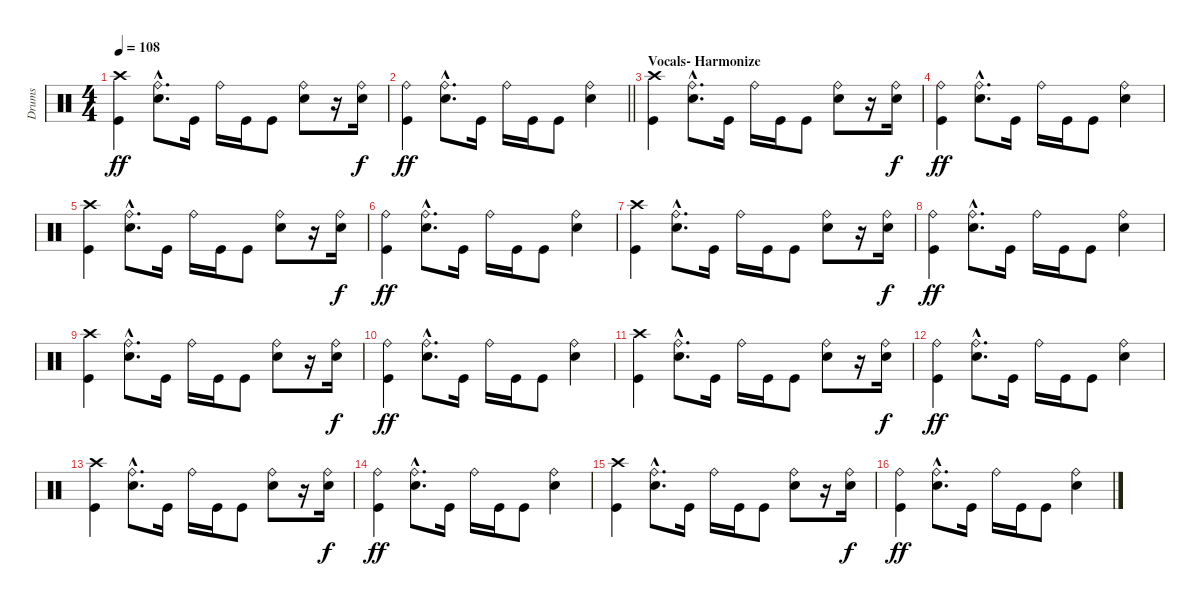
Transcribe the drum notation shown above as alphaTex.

\track ("Drums" "Drums") {instrument percussion}
\staff {score}
\articulation defaults
\ts (4 4)
\tempo 108
\clef neutral
\ks c
("Crash high (hit)" "Kick (hit)").4{dy ff} ("Ride (bell)"{hac} "Electric Snare (hit)"{hac}).8{d} "Kick (hit)".16 "Ride (bell)".16 "Kick (hit)".16 "Kick (hit)".8 ("Ride (bell)" "Electric Snare (hit)").8 r.16 ("Ride (bell)" "Electric Snare (hit)").16{dy f} |
\barLineRight lightlight
("Ride (bell)" "Kick (hit)").4{dy ff} ("Ride (bell)"{hac} "Electric Snare (hit)"{hac}).8{d} "Kick (hit)".16 "Ride (bell)".16 "Kick (hit)".16 "Kick (hit)".8 ("Ride (bell)" "Electric Snare (hit)").4 |
\section ("" "Vocals- Harmonize")
("Crash high (hit)" "Kick (hit)").4 ("Ride (bell)"{hac} "Electric Snare (hit)"{hac}).8{d} "Kick (hit)".16 "Ride (bell)".16 "Kick (hit)".16 "Kick (hit)".8 ("Ride (bell)" "Electric Snare (hit)").8 r.16 ("Ride (bell)" "Electric Snare (hit)").16{dy f} |
("Ride (bell)" "Kick (hit)").4{dy ff} ("Ride (bell)"{hac} "Electric Snare (hit)"{hac}).8{d} "Kick (hit)".16 "Ride (bell)".16 "Kick (hit)".16 "Kick (hit)".8 ("Ride (bell)" "Electric Snare (hit)").4 |
("Crash high (hit)" "Kick (hit)").4 ("Ride (bell)"{hac} "Electric Snare (hit)"{hac}).8{d} "Kick (hit)".16 "Ride (bell)".16 "Kick (hit)".16 "Kick (hit)".8 ("Ride (bell)" "Electric Snare (hit)").8 r.16 ("Ride (bell)" "Electric Snare (hit)").16{dy f} |
("Ride (bell)" "Kick (hit)").4{dy ff} ("Ride (bell)"{hac} "Electric Snare (hit)"{hac}).8{d} "Kick (hit)".16 "Ride (bell)".16 "Kick (hit)".16 "Kick (hit)".8 ("Ride (bell)" "Electric Snare (hit)").4 |
("Crash high (hit)" "Kick (hit)").4 ("Ride (bell)"{hac} "Electric Snare (hit)"{hac}).8{d} "Kick (hit)".16 "Ride (bell)".16 "Kick (hit)".16 "Kick (hit)".8 ("Ride (bell)" "Electric Snare (hit)").8 r.16 ("Ride (bell)" "Electric Snare (hit)").16{dy f} |
("Ride (bell)" "Kick (hit)").4{dy ff} ("Ride (bell)"{hac} "Electric Snare (hit)"{hac}).8{d} "Kick (hit)".16 "Ride (bell)".16 "Kick (hit)".16 "Kick (hit)".8 ("Ride (bell)" "Electric Snare (hit)").4 |
("Crash high (hit)" "Kick (hit)").4 ("Ride (bell)"{hac} "Electric Snare (hit)"{hac}).8{d} "Kick (hit)".16 "Ride (bell)".16 "Kick (hit)".16 "Kick (hit)".8 ("Ride (bell)" "Electric Snare (hit)").8 r.16 ("Ride (bell)" "Electric Snare (hit)").16{dy f} |
("Ride (bell)" "Kick (hit)").4{dy ff} ("Ride (bell)"{hac} "Electric Snare (hit)"{hac}).8{d} "Kick (hit)".16 "Ride (bell)".16 "Kick (hit)".16 "Kick (hit)".8 ("Ride (bell)" "Electric Snare (hit)").4 |
("Crash high (hit)" "Kick (hit)").4 ("Ride (bell)"{hac} "Electric Snare (hit)"{hac}).8{d} "Kick (hit)".16 "Ride (bell)".16 "Kick (hit)".16 "Kick (hit)".8 ("Ride (bell)" "Electric Snare (hit)").8 r.16 ("Ride (bell)" "Electric Snare (hit)").16{dy f} |
("Ride (bell)" "Kick (hit)").4{dy ff} ("Ride (bell)"{hac} "Electric Snare (hit)"{hac}).8{d} "Kick (hit)".16 "Ride (bell)".16 "Kick (hit)".16 "Kick (hit)".8 ("Ride (bell)" "Electric Snare (hit)").4 |
("Crash high (hit)" "Kick (hit)").4 ("Ride (bell)"{hac} "Electric Snare (hit)"{hac}).8{d} "Kick (hit)".16 "Ride (bell)".16 "Kick (hit)".16 "Kick (hit)".8 ("Ride (bell)" "Electric Snare (hit)").8 r.16 ("Ride (bell)" "Electric Snare (hit)").16{dy f} |
("Ride (bell)" "Kick (hit)").4{dy ff} ("Ride (bell)"{hac} "Electric Snare (hit)"{hac}).8{d} "Kick (hit)".16 "Ride (bell)".16 "Kick (hit)".16 "Kick (hit)".8 ("Ride (bell)" "Electric Snare (hit)").4 |
("Crash high (hit)" "Kick (hit)").4 ("Ride (bell)"{hac} "Electric Snare (hit)"{hac}).8{d} "Kick (hit)".16 "Ride (bell)".16 "Kick (hit)".16 "Kick (hit)".8 ("Ride (bell)" "Electric Snare (hit)").8 r.16 ("Ride (bell)" "Electric Snare (hit)").16{dy f} |
("Ride (bell)" "Kick (hit)").4{dy ff} ("Ride (bell)"{hac} "Electric Snare (hit)"{hac}).8{d} "Kick (hit)".16 "Ride (bell)".16 "Kick (hit)".16 "Kick (hit)".8 ("Ride (bell)" "Electric Snare (hit)").4
